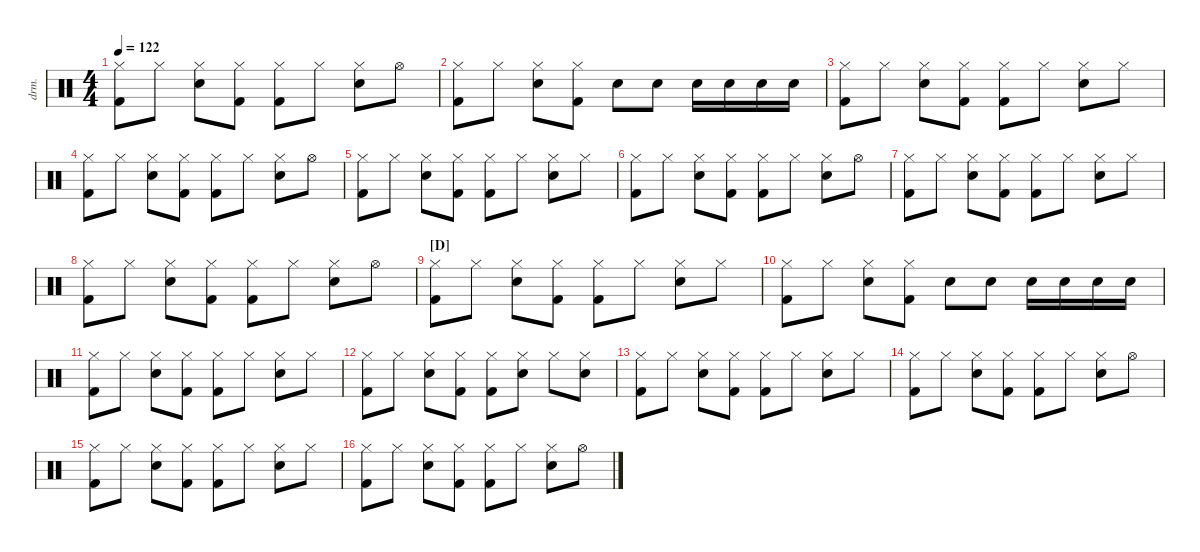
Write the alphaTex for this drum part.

\defaultSystemsLayout 4
\hideDynamics
\bracketExtendMode nobrackets
\track ("Drumkit" "drm.") {defaultSystemsLayout 4 instrument percussion}
\staff {score}
\articulation defaults
\ts (4 4)
\tempo 122
\clef neutral
\ks c
("Hi-Hat (closed)" "Kick (hit) 2").8{dy f} "Hi-Hat (closed)".8 ("Hi-Hat (closed)" "Snare (hit) 2").8 ("Hi-Hat (closed)" "Kick (hit) 2").8 ("Hi-Hat (closed)" "Kick (hit) 2").8 "Hi-Hat (closed)".8 ("Hi-Hat (closed)" "Snare (hit) 2").8 "Hi-Hat (open)".8 |
("Hi-Hat (closed)" "Kick (hit) 2").8 "Hi-Hat (closed)".8 ("Hi-Hat (closed)" "Snare (hit) 2").8 ("Hi-Hat (closed)" "Kick (hit) 2").8 "Snare (hit) 2".8 "Snare (hit) 2".8 "Snare (hit) 2".16 "Snare (hit) 2".16 "Snare (hit) 2".16 "Snare (hit) 2".16 |
("Hi-Hat (closed)" "Kick (hit) 2").8 "Hi-Hat (closed)".8 ("Hi-Hat (closed)" "Snare (hit) 2").8 ("Hi-Hat (closed)" "Kick (hit) 2").8 ("Hi-Hat (closed)" "Kick (hit) 2").8 "Hi-Hat (closed)".8 ("Hi-Hat (closed)" "Snare (hit) 2").8 "Hi-Hat (closed)".8 |
("Hi-Hat (closed)" "Kick (hit) 2").8 "Hi-Hat (closed)".8 ("Hi-Hat (closed)" "Snare (hit) 2").8 ("Hi-Hat (closed)" "Kick (hit) 2").8 ("Hi-Hat (closed)" "Kick (hit) 2").8 "Hi-Hat (closed)".8 ("Hi-Hat (closed)" "Snare (hit) 2").8 "Hi-Hat (open)".8 |
("Hi-Hat (closed)" "Kick (hit) 2").8 "Hi-Hat (closed)".8 ("Hi-Hat (closed)" "Snare (hit) 2").8 ("Hi-Hat (closed)" "Kick (hit) 2").8 ("Hi-Hat (closed)" "Kick (hit) 2").8 "Hi-Hat (closed)".8 ("Hi-Hat (closed)" "Snare (hit) 2").8 "Hi-Hat (closed)".8 |
("Hi-Hat (closed)" "Kick (hit) 2").8 "Hi-Hat (closed)".8 ("Hi-Hat (closed)" "Snare (hit) 2").8 ("Hi-Hat (closed)" "Kick (hit) 2").8 ("Hi-Hat (closed)" "Kick (hit) 2").8 "Hi-Hat (closed)".8 ("Hi-Hat (closed)" "Snare (hit) 2").8 "Hi-Hat (open)".8 |
("Hi-Hat (closed)" "Kick (hit) 2").8 "Hi-Hat (closed)".8 ("Hi-Hat (closed)" "Snare (hit) 2").8 ("Hi-Hat (closed)" "Kick (hit) 2").8 ("Hi-Hat (closed)" "Kick (hit) 2").8 "Hi-Hat (closed)".8 ("Hi-Hat (closed)" "Snare (hit) 2").8 "Hi-Hat (closed)".8 |
("Hi-Hat (closed)" "Kick (hit) 2").8 "Hi-Hat (closed)".8 ("Hi-Hat (closed)" "Snare (hit) 2").8 ("Hi-Hat (closed)" "Kick (hit) 2").8 ("Hi-Hat (closed)" "Kick (hit) 2").8 "Hi-Hat (closed)".8 ("Hi-Hat (closed)" "Snare (hit) 2").8 "Hi-Hat (open)".8 |
\section ("D" "")
("Hi-Hat (closed)" "Kick (hit) 2").8 "Hi-Hat (closed)".8 ("Hi-Hat (closed)" "Snare (hit) 2").8 ("Hi-Hat (closed)" "Kick (hit) 2").8 ("Hi-Hat (closed)" "Kick (hit) 2").8 "Hi-Hat (closed)".8 ("Hi-Hat (closed)" "Snare (hit) 2").8 "Hi-Hat (closed)".8 |
("Hi-Hat (closed)" "Kick (hit) 2").8 "Hi-Hat (closed)".8 ("Hi-Hat (closed)" "Snare (hit) 2").8 ("Hi-Hat (closed)" "Kick (hit) 2").8 "Snare (hit) 2".8 "Snare (hit) 2".8 "Snare (hit) 2".16 "Snare (hit) 2".16 "Snare (hit) 2".16 "Snare (hit) 2".16 |
("Hi-Hat (closed)" "Kick (hit) 2").8 "Hi-Hat (closed)".8 ("Hi-Hat (closed)" "Snare (hit) 2").8 ("Hi-Hat (closed)" "Kick (hit) 2").8 ("Hi-Hat (closed)" "Kick (hit) 2").8 "Hi-Hat (closed)".8 ("Hi-Hat (closed)" "Snare (hit) 2").8 "Hi-Hat (closed)".8 |
("Hi-Hat (closed)" "Kick (hit) 2").8 "Hi-Hat (closed)".8 ("Hi-Hat (closed)" "Snare (hit) 2").8 ("Hi-Hat (closed)" "Kick (hit) 2").8 ("Hi-Hat (closed)" "Kick (hit) 2").8 ("Hi-Hat (closed)" "Snare (hit) 2").8 "Hi-Hat (closed)".8 ("Hi-Hat (closed)" "Snare (hit) 2").8 |
("Hi-Hat (closed)" "Kick (hit) 2").8 "Hi-Hat (closed)".8 ("Hi-Hat (closed)" "Snare (hit) 2").8 ("Hi-Hat (closed)" "Kick (hit) 2").8 ("Hi-Hat (closed)" "Kick (hit) 2").8 "Hi-Hat (closed)".8 ("Hi-Hat (closed)" "Snare (hit) 2").8 "Hi-Hat (closed)".8 |
("Hi-Hat (closed)" "Kick (hit) 2").8 "Hi-Hat (closed)".8 ("Hi-Hat (closed)" "Snare (hit) 2").8 ("Hi-Hat (closed)" "Kick (hit) 2").8 ("Hi-Hat (closed)" "Kick (hit) 2").8 "Hi-Hat (closed)".8 ("Hi-Hat (closed)" "Snare (hit) 2").8 "Hi-Hat (open)".8 |
("Hi-Hat (closed)" "Kick (hit) 2").8 "Hi-Hat (closed)".8 ("Hi-Hat (closed)" "Snare (hit) 2").8 ("Hi-Hat (closed)" "Kick (hit) 2").8 ("Hi-Hat (closed)" "Kick (hit) 2").8 "Hi-Hat (closed)".8 ("Hi-Hat (closed)" "Snare (hit) 2").8 "Hi-Hat (closed)".8 |
("Hi-Hat (closed)" "Kick (hit) 2").8 "Hi-Hat (closed)".8 ("Hi-Hat (closed)" "Snare (hit) 2").8 ("Hi-Hat (closed)" "Kick (hit) 2").8 ("Hi-Hat (closed)" "Kick (hit) 2").8 "Hi-Hat (closed)".8 ("Hi-Hat (closed)" "Snare (hit) 2").8 "Hi-Hat (open)".8
